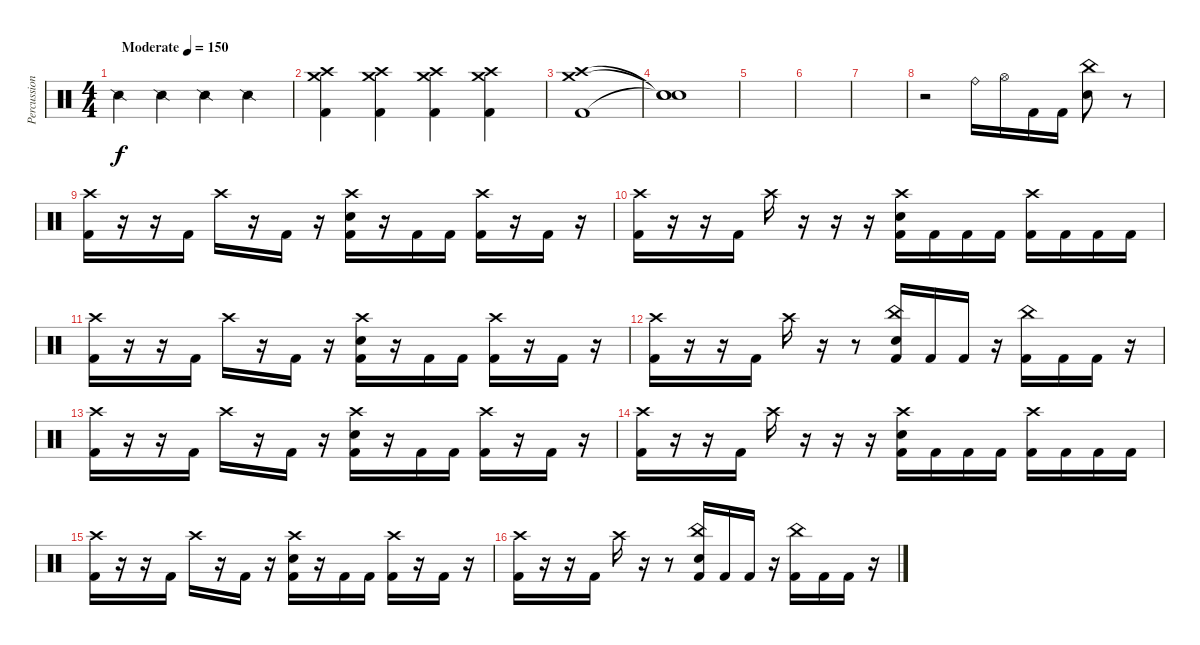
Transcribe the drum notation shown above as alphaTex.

\track ("Percussion" "Percussion") {instrument percussion}
\staff {score}
\articulation defaults
\ts (4 4)
\tempo (150 "Moderate")
\clef neutral
\ks c "Snare (side stick) 2".4{dy f} "Snare (side stick) 2".4 "Snare (side stick) 2".4 "Snare (side stick) 2".4
|
("Crash high (hit)" "Crash medium (hit)" "Kick (hit) 2").4 ("Crash medium (hit)" "Crash high (hit)" "Kick (hit) 2").4 ("Crash high (hit)" "Crash medium (hit)" "Kick (hit) 2").4 ("Crash medium (hit)" "Crash high (hit)" "Kick (hit) 2").4 |
("Crash medium (hit)" "Crash high (hit)" "Kick (hit) 2").1 |
("Snare (hit)"{t} "Snare (hit)"{t} "Snare (hit)"{t}).1 |
|
|
|
r.2 "Ride (bell)".16 "Hi-Hat (open)".16 "Kick (hit) 2".16 "Kick (hit) 2".16 ("China (hit)" "Electric Snare (hit)").8 r.8 |
("Crash high (hit)" "Kick (hit) 2").16 r.16 r.16 "Kick (hit) 2".16 "Crash high (hit)".16 r.16 "Kick (hit) 2".16 r.16 ("Crash high (hit)" "Electric Snare (hit)" "Kick (hit) 2").16 r.16 "Kick (hit) 2".16 "Kick (hit) 2".16 ("Crash high (hit)" "Kick (hit) 2").16 r.16 "Kick (hit) 2".16 r.16 |
("Crash high (hit)" "Kick (hit) 2").16 r.16 r.16 "Kick (hit) 2".16 "Crash high (hit)".16 r.16 r.16 r.16 ("Crash high (hit)" "Electric Snare (hit)" "Kick (hit) 2").16 "Kick (hit) 2".16 "Kick (hit) 2".16 "Kick (hit) 2".16 ("Crash high (hit)" "Kick (hit) 2").16 "Kick (hit) 2".16 "Kick (hit) 2".16 "Kick (hit) 2".16 |
("Crash high (hit)" "Kick (hit) 2").16 r.16 r.16 "Kick (hit) 2".16 "Crash high (hit)".16 r.16 "Kick (hit) 2".16 r.16 ("Crash high (hit)" "Electric Snare (hit)" "Kick (hit) 2").16 r.16 "Kick (hit) 2".16 "Kick (hit) 2".16 ("Crash high (hit)" "Kick (hit) 2").16 r.16 "Kick (hit) 2".16 r.16 |
("Crash high (hit)" "Kick (hit) 2").16 r.16 r.16 "Kick (hit) 2".16 "Crash high (hit)".16 r.16 r.8 ("China (hit)" "Electric Snare (hit)" "Kick (hit) 2").16 "Kick (hit) 2".16 "Kick (hit) 2".16 r.16 ("China (hit)" "Kick (hit) 2").16 "Kick (hit) 2".16 "Kick (hit) 2".16 r.16 |
("Crash high (hit)" "Kick (hit) 2").16 r.16 r.16 "Kick (hit) 2".16 "Crash high (hit)".16 r.16 "Kick (hit) 2".16 r.16 ("Crash high (hit)" "Electric Snare (hit)" "Kick (hit) 2").16 r.16 "Kick (hit) 2".16 "Kick (hit) 2".16 ("Crash high (hit)" "Kick (hit) 2").16 r.16 "Kick (hit) 2".16 r.16 |
("Crash high (hit)" "Kick (hit) 2").16 r.16 r.16 "Kick (hit) 2".16 "Crash high (hit)".16 r.16 r.16 r.16 ("Crash high (hit)" "Electric Snare (hit)" "Kick (hit) 2").16 "Kick (hit) 2".16 "Kick (hit) 2".16 "Kick (hit) 2".16 ("Crash high (hit)" "Kick (hit) 2").16 "Kick (hit) 2".16 "Kick (hit) 2".16 "Kick (hit) 2".16 |
("Crash high (hit)" "Kick (hit) 2").16 r.16 r.16 "Kick (hit) 2".16 "Crash high (hit)".16 r.16 "Kick (hit) 2".16 r.16 ("Crash high (hit)" "Electric Snare (hit)" "Kick (hit) 2").16 r.16 "Kick (hit) 2".16 "Kick (hit) 2".16 ("Crash high (hit)" "Kick (hit) 2").16 r.16 "Kick (hit) 2".16 r.16 |
("Crash high (hit)" "Kick (hit) 2").16 r.16 r.16 "Kick (hit) 2".16 "Crash high (hit)".16 r.16 r.8 ("China (hit)" "Electric Snare (hit)" "Kick (hit) 2").16 "Kick (hit) 2".16 "Kick (hit) 2".16 r.16 ("China (hit)" "Kick (hit) 2").16 "Kick (hit) 2".16 "Kick (hit) 2".16 r.16
